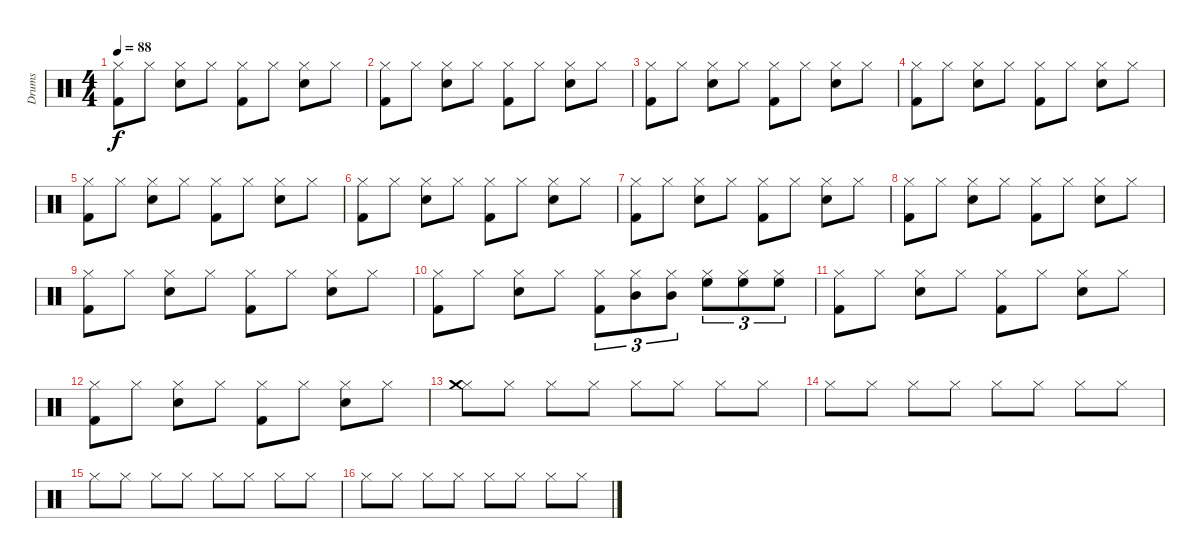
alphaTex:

\track ("Drums" "Drums") {instrument percussion}
\staff {score}
\articulation defaults
\ts (4 4)
\tempo 88
\clef neutral
\ks c
("Hi-Hat (closed)" "Kick (hit) 2").8{dy f} "Hi-Hat (closed)".8 ("Hi-Hat (closed)" "Snare (hit) 2").8 "Hi-Hat (closed)".8 ("Hi-Hat (closed)" "Kick (hit) 2").8 "Hi-Hat (closed)".8 ("Hi-Hat (closed)" "Snare (hit) 2").8 "Hi-Hat (closed)".8 |
("Hi-Hat (closed)" "Kick (hit) 2").8 "Hi-Hat (closed)".8 ("Hi-Hat (closed)" "Snare (hit) 2").8 "Hi-Hat (closed)".8 ("Hi-Hat (closed)" "Kick (hit) 2").8 "Hi-Hat (closed)".8 ("Hi-Hat (closed)" "Snare (hit) 2").8 "Hi-Hat (closed)".8 |
("Hi-Hat (closed)" "Kick (hit) 2").8 "Hi-Hat (closed)".8 ("Hi-Hat (closed)" "Snare (hit) 2").8 "Hi-Hat (closed)".8 ("Hi-Hat (closed)" "Kick (hit) 2").8 "Hi-Hat (closed)".8 ("Hi-Hat (closed)" "Snare (hit) 2").8 "Hi-Hat (closed)".8 |
("Hi-Hat (closed)" "Kick (hit) 2").8 "Hi-Hat (closed)".8 ("Hi-Hat (closed)" "Snare (hit) 2").8 "Hi-Hat (closed)".8 ("Hi-Hat (closed)" "Kick (hit) 2").8 "Hi-Hat (closed)".8 ("Hi-Hat (closed)" "Snare (hit) 2").8 "Hi-Hat (closed)".8 |
("Hi-Hat (closed)" "Kick (hit) 2").8 "Hi-Hat (closed)".8 ("Hi-Hat (closed)" "Snare (hit) 2").8 "Hi-Hat (closed)".8 ("Hi-Hat (closed)" "Kick (hit) 2").8 "Hi-Hat (closed)".8 ("Hi-Hat (closed)" "Snare (hit) 2").8 "Hi-Hat (closed)".8 |
("Hi-Hat (closed)" "Kick (hit) 2").8 "Hi-Hat (closed)".8 ("Hi-Hat (closed)" "Snare (hit) 2").8 "Hi-Hat (closed)".8 ("Hi-Hat (closed)" "Kick (hit) 2").8 "Hi-Hat (closed)".8 ("Hi-Hat (closed)" "Snare (hit) 2").8 "Hi-Hat (closed)".8 |
("Hi-Hat (closed)" "Kick (hit) 2").8 "Hi-Hat (closed)".8 ("Hi-Hat (closed)" "Snare (hit) 2").8 "Hi-Hat (closed)".8 ("Hi-Hat (closed)" "Kick (hit) 2").8 "Hi-Hat (closed)".8 ("Hi-Hat (closed)" "Snare (hit) 2").8 "Hi-Hat (closed)".8 |
("Hi-Hat (closed)" "Kick (hit) 2").8 "Hi-Hat (closed)".8 ("Hi-Hat (closed)" "Snare (hit) 2").8 "Hi-Hat (closed)".8 ("Hi-Hat (closed)" "Kick (hit) 2").8 "Hi-Hat (closed)".8 ("Hi-Hat (closed)" "Snare (hit) 2").8 "Hi-Hat (closed)".8 |
("Hi-Hat (closed)" "Kick (hit) 2").8 "Hi-Hat (closed)".8 ("Hi-Hat (closed)" "Snare (hit) 2").8 "Hi-Hat (closed)".8 ("Hi-Hat (closed)" "Kick (hit) 2").8 "Hi-Hat (closed)".8 ("Hi-Hat (closed)" "Snare (hit) 2").8 "Hi-Hat (closed)".8 |
("Hi-Hat (closed)" "Kick (hit) 2").8 "Hi-Hat (closed)".8 ("Hi-Hat (closed)" "Snare (hit) 2").8 "Hi-Hat (closed)".8 ("Hi-Hat (closed)" "Kick (hit) 2").8{tu (3 2)} ("Hi-Hat (closed)" "Mid Tom (hit)").8{tu (3 2)} ("Hi-Hat (closed)" "Mid Tom (hit)").8{tu (3 2)} ("Hi-Hat (closed)" "High Floor Tom (hit)").8{tu (3 2)} ("Hi-Hat (closed)" "High Floor Tom (hit)").8{tu (3 2)} ("Hi-Hat (closed)" "High Floor Tom (hit)").8{tu (3 2)} |
("Hi-Hat (closed)" "Kick (hit) 2").8 "Hi-Hat (closed)".8 ("Hi-Hat (closed)" "Snare (hit) 2").8 "Hi-Hat (closed)".8 ("Hi-Hat (closed)" "Kick (hit) 2").8 "Hi-Hat (closed)".8 ("Hi-Hat (closed)" "Snare (hit) 2").8 "Hi-Hat (closed)".8 |
("Hi-Hat (closed)" "Kick (hit) 2").8 "Hi-Hat (closed)".8 ("Hi-Hat (closed)" "Snare (hit) 2").8 "Hi-Hat (closed)".8 ("Hi-Hat (closed)" "Kick (hit) 2").8 "Hi-Hat (closed)".8 ("Hi-Hat (closed)" "Snare (hit) 2").8 "Hi-Hat (closed)".8 |
("Hi-Hat (closed)" "Crash medium (hit)").8 "Hi-Hat (closed)".8 "Hi-Hat (closed)".8 "Hi-Hat (closed)".8 "Hi-Hat (closed)".8 "Hi-Hat (closed)".8 "Hi-Hat (closed)".8 "Hi-Hat (closed)".8 |
"Hi-Hat (closed)".8 "Hi-Hat (closed)".8 "Hi-Hat (closed)".8 "Hi-Hat (closed)".8 "Hi-Hat (closed)".8 "Hi-Hat (closed)".8 "Hi-Hat (closed)".8 "Hi-Hat (closed)".8 |
"Hi-Hat (closed)".8 "Hi-Hat (closed)".8 "Hi-Hat (closed)".8 "Hi-Hat (closed)".8 "Hi-Hat (closed)".8 "Hi-Hat (closed)".8 "Hi-Hat (closed)".8 "Hi-Hat (closed)".8 |
"Hi-Hat (closed)".8 "Hi-Hat (closed)".8 "Hi-Hat (closed)".8 "Hi-Hat (closed)".8 "Hi-Hat (closed)".8 "Hi-Hat (closed)".8 "Hi-Hat (closed)".8 "Hi-Hat (closed)".8
